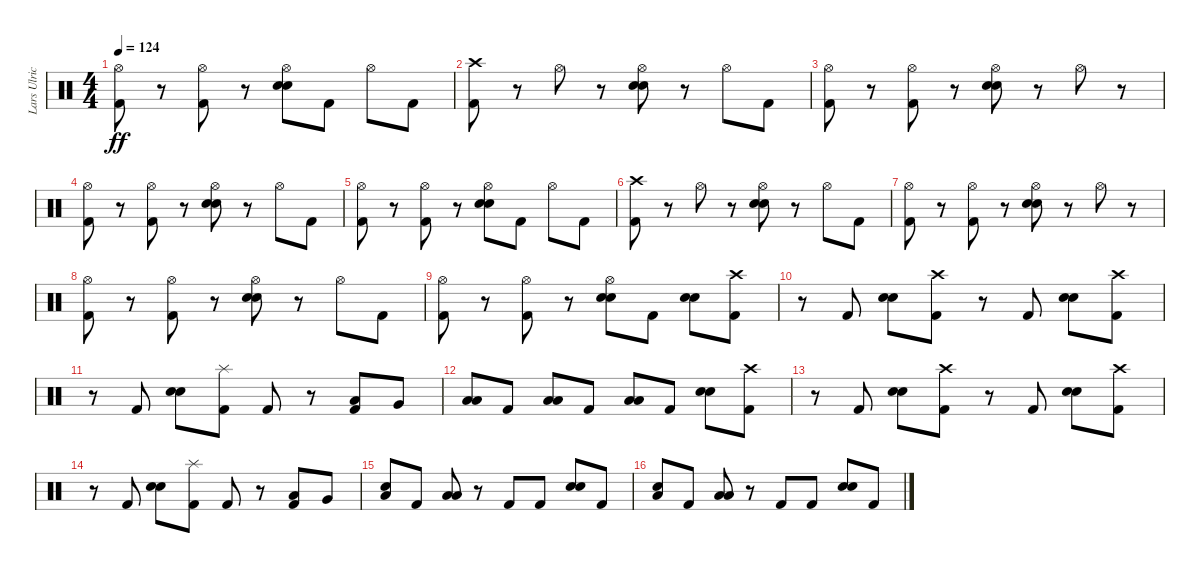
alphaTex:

\track ("Lars Ulrich" "Lars Ulric") {instrument percussion}
\staff {score}
\articulation defaults
\ts (4 4)
\tempo 124
\clef neutral
\ks c
("Hi-Hat (open)" "Kick (hit) 2").8{dy ff} r.8 ("Hi-Hat (open)" "Kick (hit) 2").8 r.8 ("Hi-Hat (open)" "Electric Snare (hit)" "Electric Snare (hit)").8 "Kick (hit) 2".8 "Hi-Hat (open)".8 "Kick (hit) 2".8 |
("Crash high (hit)" "Kick (hit) 2").8 r.8 "Hi-Hat (open)".8 r.8 ("Hi-Hat (open)" "Electric Snare (hit)" "Electric Snare (hit)").8 r.8 "Hi-Hat (open)".8 "Kick (hit) 2".8 |
("Hi-Hat (open)" "Kick (hit) 2").8 r.8 ("Hi-Hat (open)" "Kick (hit) 2").8 r.8 ("Hi-Hat (open)" "Electric Snare (hit)" "Electric Snare (hit)").8 r.8 "Hi-Hat (open)".8 r.8 |
("Hi-Hat (open)" "Kick (hit) 2").8 r.8 ("Hi-Hat (open)" "Kick (hit) 2").8 r.8 ("Hi-Hat (open)" "Electric Snare (hit)" "Electric Snare (hit)").8 r.8 "Hi-Hat (open)".8 "Kick (hit) 2".8 |
("Hi-Hat (open)" "Kick (hit) 2").8 r.8 ("Hi-Hat (open)" "Kick (hit) 2").8 r.8 ("Hi-Hat (open)" "Electric Snare (hit)" "Electric Snare (hit)").8 "Kick (hit) 2".8 "Hi-Hat (open)".8 "Kick (hit) 2".8 |
("Crash high (hit)" "Kick (hit) 2").8 r.8 "Hi-Hat (open)".8 r.8 ("Hi-Hat (open)" "Electric Snare (hit)" "Electric Snare (hit)").8 r.8 "Hi-Hat (open)".8 "Kick (hit) 2".8 |
("Hi-Hat (open)" "Kick (hit) 2").8 r.8 ("Hi-Hat (open)" "Kick (hit) 2").8 r.8 ("Hi-Hat (open)" "Electric Snare (hit)" "Electric Snare (hit)").8 r.8 "Hi-Hat (open)".8 r.8 |
("Hi-Hat (open)" "Kick (hit) 2").8 r.8 ("Hi-Hat (open)" "Kick (hit) 2").8 r.8 ("Hi-Hat (open)" "Electric Snare (hit)" "Electric Snare (hit)").8 r.8 "Hi-Hat (open)".8 "Kick (hit) 2".8 |
("Hi-Hat (open)" "Kick (hit) 2").8 r.8 ("Hi-Hat (open)" "Kick (hit) 2").8 r.8 ("Hi-Hat (open)" "Electric Snare (hit)" "Electric Snare (hit)").8 "Kick (hit) 2".8 ("Electric Snare (hit)" "Electric Snare (hit)").8{bd 240} ("Crash high (hit)" "Kick (hit) 2").8 |
r.8 "Kick (hit) 2".8 ("Electric Snare (hit)" "Electric Snare (hit)").8{bd 240} ("Crash high (hit)" "Kick (hit) 2").8 r.8 "Kick (hit) 2".8 ("Electric Snare (hit)" "Electric Snare (hit)").8{bd 240} ("Crash high (hit)" "Kick (hit) 2").8 |
r.8 "Kick (hit) 2".8 ("Electric Snare (hit)" "Electric Snare (hit)").8{bd 240} ("Splash (hit)" "Kick (hit) 2").8 "Kick (hit) 2".8 r.8 ("Low Floor Tom (hit)" "Kick (hit) 2").8 "Very Low Tom (hit)".8 |
("Low Tom (hit)" "Low Tom (hit)").8 "Kick (hit) 2".8 ("Low Tom (hit)" "Low Tom (hit)").8 "Kick (hit) 2".8 ("Low Tom (hit)" "Low Tom (hit)").8 "Kick (hit) 2".8 ("Electric Snare (hit)" "Electric Snare (hit)").8{bd 240} ("Crash high (hit)" "Kick (hit) 2").8 |
r.8 "Kick (hit) 2".8 ("Electric Snare (hit)" "Electric Snare (hit)").8{bd 240} ("Crash high (hit)" "Kick (hit) 2").8 r.8 "Kick (hit) 2".8 ("Electric Snare (hit)" "Electric Snare (hit)").8{bd 240} ("Crash high (hit)" "Kick (hit) 2").8 |
r.8 "Kick (hit) 2".8 ("Electric Snare (hit)" "Electric Snare (hit)").8{bd 240} ("Splash (hit)" "Kick (hit) 2").8 "Kick (hit) 2".8 r.8 ("Low Floor Tom (hit)" "Kick (hit) 2").8 "Very Low Tom (hit)".8 |
("Electric Snare (hit)" "Low Tom (hit)").8 "Kick (hit) 2".8 ("Low Tom (hit)" "Low Tom (hit)").8 r.8 "Kick (hit) 2".8 "Kick (hit) 2".8 ("Electric Snare (hit)" "Electric Snare (hit)").8{bd 240} "Kick (hit) 2".8 |
("Electric Snare (hit)" "Low Tom (hit)").8 "Kick (hit) 2".8 ("Low Tom (hit)" "Low Tom (hit)").8 r.8 "Kick (hit) 2".8 "Kick (hit) 2".8 ("Electric Snare (hit)" "Electric Snare (hit)").8{bd 240} "Kick (hit) 2".8
